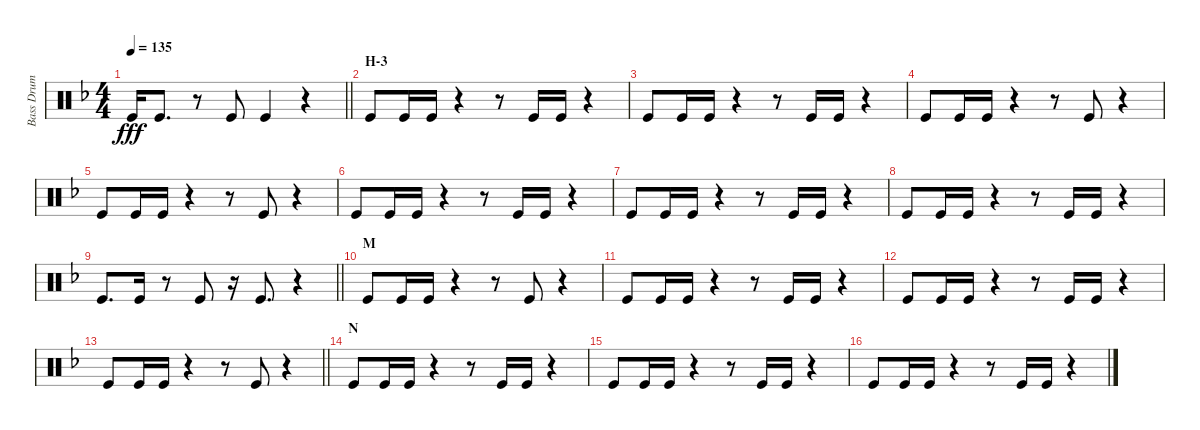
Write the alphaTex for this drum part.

\track ("Bass Drum" "Bass Drum") {instrument percussion}
\staff {score}
\articulation defaults
\ts (4 4)
\tempo 135
\clef neutral
\barLineRight lightlight
\ks f "Kick (hit)".16{dy fff} "Kick (hit)".8{d}
r.8 "Kick (hit)".8 "Kick (hit)".4 r.4 |
\section ("" "H-3")
"Kick (hit)".8 "Kick (hit)".16 "Kick (hit)".16 r.4 r.8 "Kick (hit)".16 "Kick (hit)".16 r.4 |
"Kick (hit)".8 "Kick (hit)".16 "Kick (hit)".16 r.4 r.8 "Kick (hit)".16 "Kick (hit)".16 r.4 |
"Kick (hit)".8 "Kick (hit)".16 "Kick (hit)".16 r.4 r.8 "Kick (hit)".8 r.4 |
"Kick (hit)".8 "Kick (hit)".16 "Kick (hit)".16 r.4 r.8 "Kick (hit)".8 r.4 |
"Kick (hit)".8 "Kick (hit)".16 "Kick (hit)".16 r.4 r.8 "Kick (hit)".16 "Kick (hit)".16 r.4 |
"Kick (hit)".8 "Kick (hit)".16 "Kick (hit)".16 r.4 r.8 "Kick (hit)".16 "Kick (hit)".16 r.4 |
"Kick (hit)".8 "Kick (hit)".16 "Kick (hit)".16 r.4 r.8 "Kick (hit)".16 "Kick (hit)".16 r.4 |
\barLineRight lightlight "Kick (hit)".8{d} "Kick (hit)".16
r.8 "Kick (hit)".8 r.16 "Kick (hit)".8{d} r.4 |
\section ("" "M")
"Kick (hit)".8 "Kick (hit)".16 "Kick (hit)".16 r.4 r.8 "Kick (hit)".8 r.4 |
"Kick (hit)".8 "Kick (hit)".16 "Kick (hit)".16 r.4 r.8 "Kick (hit)".16 "Kick (hit)".16 r.4 |
"Kick (hit)".8 "Kick (hit)".16 "Kick (hit)".16 r.4 r.8 "Kick (hit)".16 "Kick (hit)".16 r.4 |
\barLineRight lightlight "Kick (hit)".8 "Kick (hit)".16 "Kick (hit)".16
r.4 r.8 "Kick (hit)".8 r.4 |
\section ("" "N")
"Kick (hit)".8 "Kick (hit)".16 "Kick (hit)".16 r.4 r.8 "Kick (hit)".16 "Kick (hit)".16 r.4 |
"Kick (hit)".8 "Kick (hit)".16 "Kick (hit)".16 r.4 r.8 "Kick (hit)".16 "Kick (hit)".16 r.4 |
"Kick (hit)".8 "Kick (hit)".16 "Kick (hit)".16 r.4 r.8 "Kick (hit)".16 "Kick (hit)".16 r.4
